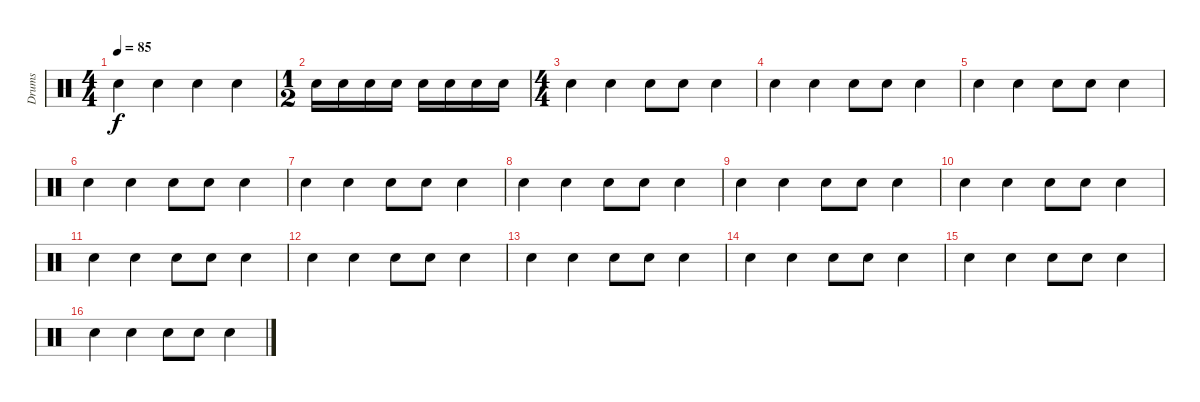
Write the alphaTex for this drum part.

\track ("Drums" "Drums") {instrument percussion}
\staff {score}
\articulation defaults
\ts (4 4)
\tempo 85
\clef neutral
\ks c "Snare (hit) 2".4{dy f} "Electric Snare (hit)".4 "Snare (hit) 2".4 "Electric Snare (hit)".4
|
\ts (1 2)
"Snare (hit) 2".16 "Snare (hit) 2".16 "Snare (hit) 2".16 "Snare (hit) 2".16 "Snare (hit) 2".16 "Snare (hit) 2".16 "Snare (hit) 2".16 "Snare (hit) 2".16 |
\ts (4 4)
"Snare (hit) 2".4 "Electric Snare (hit)".4 "Snare (hit) 2".8 "Snare (hit) 2".8 "Electric Snare (hit)".4 |
"Snare (hit) 2".4 "Electric Snare (hit)".4 "Snare (hit) 2".8 "Snare (hit) 2".8 "Electric Snare (hit)".4 |
"Snare (hit) 2".4 "Electric Snare (hit)".4 "Snare (hit) 2".8 "Snare (hit) 2".8 "Electric Snare (hit)".4 |
"Snare (hit) 2".4 "Electric Snare (hit)".4 "Snare (hit) 2".8 "Snare (hit) 2".8 "Electric Snare (hit)".4 |
"Snare (hit) 2".4 "Electric Snare (hit)".4 "Snare (hit) 2".8 "Snare (hit) 2".8 "Electric Snare (hit)".4 |
"Snare (hit) 2".4 "Electric Snare (hit)".4 "Snare (hit) 2".8 "Snare (hit) 2".8 "Electric Snare (hit)".4 |
"Snare (hit) 2".4 "Electric Snare (hit)".4 "Snare (hit) 2".8 "Snare (hit) 2".8 "Electric Snare (hit)".4 |
"Snare (hit) 2".4 "Electric Snare (hit)".4 "Snare (hit) 2".8 "Snare (hit) 2".8 "Electric Snare (hit)".4 |
"Snare (hit) 2".4 "Electric Snare (hit)".4 "Snare (hit) 2".8 "Snare (hit) 2".8 "Electric Snare (hit)".4 |
"Snare (hit) 2".4 "Electric Snare (hit)".4 "Snare (hit) 2".8 "Snare (hit) 2".8 "Electric Snare (hit)".4 |
"Snare (hit) 2".4 "Electric Snare (hit)".4 "Snare (hit) 2".8 "Snare (hit) 2".8 "Electric Snare (hit)".4 |
"Snare (hit) 2".4 "Electric Snare (hit)".4 "Snare (hit) 2".8 "Snare (hit) 2".8 "Electric Snare (hit)".4 |
"Snare (hit) 2".4 "Electric Snare (hit)".4 "Snare (hit) 2".8 "Snare (hit) 2".8 "Electric Snare (hit)".4 |
"Snare (hit) 2".4 "Electric Snare (hit)".4 "Snare (hit) 2".8 "Snare (hit) 2".8 "Electric Snare (hit)".4
